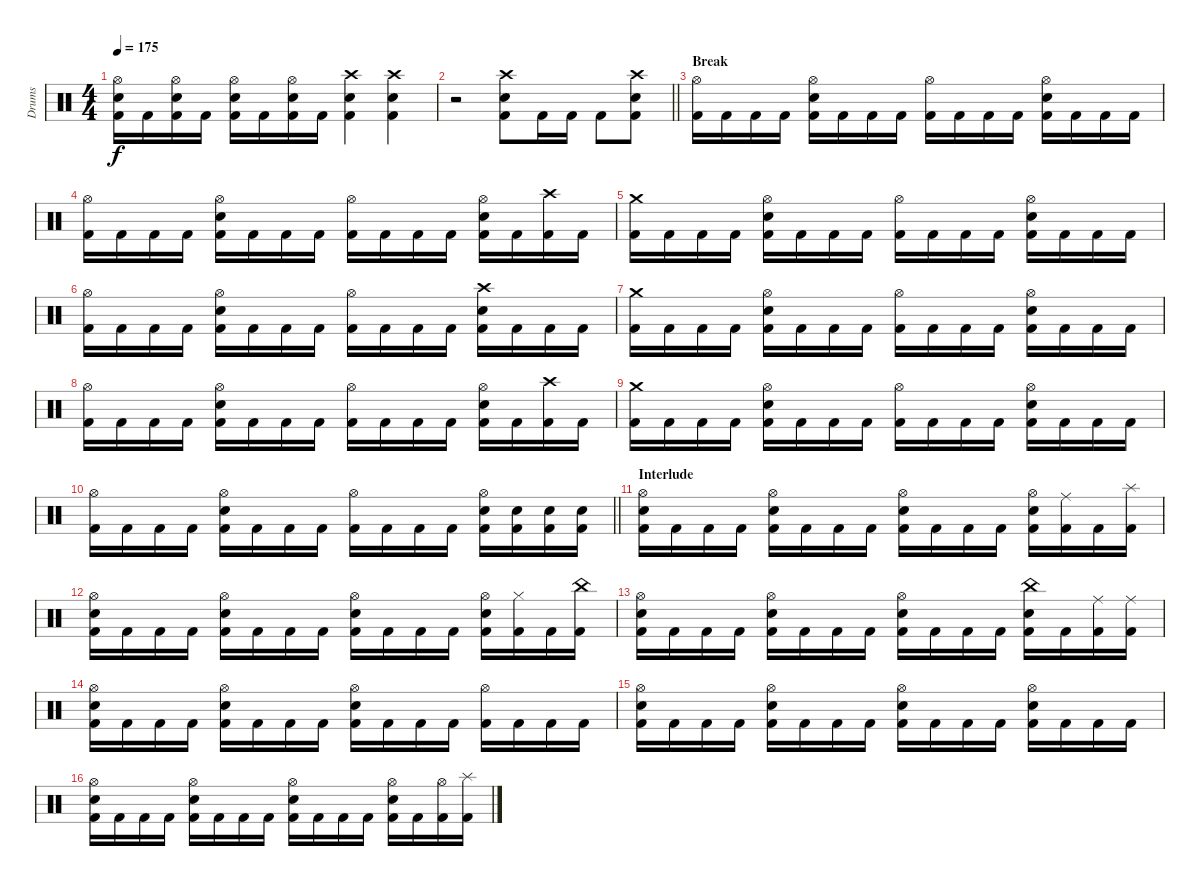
\track ("Drums" "Drums") {instrument percussion}
\staff {score}
\articulation defaults
\ts (4 4)
\tempo 175
\clef neutral
\ks c
("Hi-Hat (open)" "Snare (hit) 2" "Kick (hit) 2").16{dy f} "Kick (hit) 2".16 ("Hi-Hat (open)" "Snare (hit) 2" "Kick (hit) 2").16 "Kick (hit) 2".16 ("Hi-Hat (open)" "Snare (hit) 2" "Kick (hit) 2").16 "Kick (hit) 2".16 ("Hi-Hat (open)" "Snare (hit) 2" "Kick (hit) 2").16 "Kick (hit) 2".16 ("Crash high (hit)" "Snare (hit) 2" "Kick (hit) 2").4 ("Crash high (hit)" "Snare (hit) 2" "Kick (hit) 2").4 |
\barLineRight lightlight
r.2 ("Crash high (hit)" "Snare (hit) 2" "Kick (hit) 2").8 "Kick (hit) 2".16 "Kick (hit) 2".16 "Kick (hit) 2".8 ("Crash high (hit)" "Snare (hit) 2" "Kick (hit) 2").8 |
\section ("" "Break")
("Hi-Hat (open)" "Kick (hit) 2").16 "Kick (hit) 2".16 "Kick (hit) 2".16 "Kick (hit) 2".16 ("Hi-Hat (open)" "Snare (hit) 2" "Kick (hit) 2").16 "Kick (hit) 2".16 "Kick (hit) 2".16 "Kick (hit) 2".16 ("Hi-Hat (open)" "Kick (hit) 2").16 "Kick (hit) 2".16 "Kick (hit) 2".16 "Kick (hit) 2".16 ("Hi-Hat (open)" "Snare (hit) 2" "Kick (hit) 2").16 "Kick (hit) 2".16 "Kick (hit) 2".16 "Kick (hit) 2".16 |
("Hi-Hat (open)" "Kick (hit) 2").16 "Kick (hit) 2".16 "Kick (hit) 2".16 "Kick (hit) 2".16 ("Hi-Hat (open)" "Snare (hit) 2" "Kick (hit) 2").16 "Kick (hit) 2".16 "Kick (hit) 2".16 "Kick (hit) 2".16 ("Hi-Hat (open)" "Kick (hit) 2").16 "Kick (hit) 2".16 "Kick (hit) 2".16 "Kick (hit) 2".16 ("Hi-Hat (open)" "Snare (hit) 2" "Kick (hit) 2").16 "Kick (hit) 2".16 ("Crash high (hit)" "Kick (hit) 2").16 "Kick (hit) 2".16 |
("Crash medium (hit)" "Kick (hit) 2").16 "Kick (hit) 2".16 "Kick (hit) 2".16 "Kick (hit) 2".16 ("Hi-Hat (open)" "Snare (hit) 2" "Kick (hit) 2").16 "Kick (hit) 2".16 "Kick (hit) 2".16 "Kick (hit) 2".16 ("Hi-Hat (open)" "Kick (hit) 2").16 "Kick (hit) 2".16 "Kick (hit) 2".16 "Kick (hit) 2".16 ("Hi-Hat (open)" "Snare (hit) 2" "Kick (hit) 2").16 "Kick (hit) 2".16 "Kick (hit) 2".16 "Kick (hit) 2".16 |
("Hi-Hat (open)" "Kick (hit) 2").16 "Kick (hit) 2".16 "Kick (hit) 2".16 "Kick (hit) 2".16 ("Hi-Hat (open)" "Snare (hit) 2" "Kick (hit) 2").16 "Kick (hit) 2".16 "Kick (hit) 2".16 "Kick (hit) 2".16 ("Hi-Hat (open)" "Kick (hit) 2").16 "Kick (hit) 2".16 "Kick (hit) 2".16 "Kick (hit) 2".16 ("Crash high (hit)" "Snare (hit) 2" "Kick (hit) 2").16 "Kick (hit) 2".16 "Kick (hit) 2".16 "Kick (hit) 2".16 |
("Crash medium (hit)" "Kick (hit) 2").16 "Kick (hit) 2".16 "Kick (hit) 2".16 "Kick (hit) 2".16 ("Hi-Hat (open)" "Snare (hit) 2" "Kick (hit) 2").16 "Kick (hit) 2".16 "Kick (hit) 2".16 "Kick (hit) 2".16 ("Hi-Hat (open)" "Kick (hit) 2").16 "Kick (hit) 2".16 "Kick (hit) 2".16 "Kick (hit) 2".16 ("Hi-Hat (open)" "Snare (hit) 2" "Kick (hit) 2").16 "Kick (hit) 2".16 "Kick (hit) 2".16 "Kick (hit) 2".16 |
("Hi-Hat (open)" "Kick (hit) 2").16 "Kick (hit) 2".16 "Kick (hit) 2".16 "Kick (hit) 2".16 ("Hi-Hat (open)" "Snare (hit) 2" "Kick (hit) 2").16 "Kick (hit) 2".16 "Kick (hit) 2".16 "Kick (hit) 2".16 ("Hi-Hat (open)" "Kick (hit) 2").16 "Kick (hit) 2".16 "Kick (hit) 2".16 "Kick (hit) 2".16 ("Hi-Hat (open)" "Snare (hit) 2" "Kick (hit) 2").16 "Kick (hit) 2".16 ("Crash high (hit)" "Kick (hit) 2").16 "Kick (hit) 2".16 |
("Crash medium (hit)" "Kick (hit) 2").16 "Kick (hit) 2".16 "Kick (hit) 2".16 "Kick (hit) 2".16 ("Hi-Hat (open)" "Snare (hit) 2" "Kick (hit) 2").16 "Kick (hit) 2".16 "Kick (hit) 2".16 "Kick (hit) 2".16 ("Hi-Hat (open)" "Kick (hit) 2").16 "Kick (hit) 2".16 "Kick (hit) 2".16 "Kick (hit) 2".16 ("Hi-Hat (open)" "Snare (hit) 2" "Kick (hit) 2").16 "Kick (hit) 2".16 "Kick (hit) 2".16 "Kick (hit) 2".16 |
\barLineRight lightlight
("Hi-Hat (open)" "Kick (hit) 2").16 "Kick (hit) 2".16 "Kick (hit) 2".16 "Kick (hit) 2".16 ("Hi-Hat (open)" "Snare (hit) 2" "Kick (hit) 2").16 "Kick (hit) 2".16 "Kick (hit) 2".16 "Kick (hit) 2".16 ("Hi-Hat (open)" "Kick (hit) 2").16 "Kick (hit) 2".16 "Kick (hit) 2".16 "Kick (hit) 2".16 ("Hi-Hat (open)" "Snare (hit) 2" "Kick (hit) 2").16 ("Snare (hit) 2" "Kick (hit) 2").16 ("Snare (hit) 2" "Kick (hit) 2").16 ("Snare (hit) 2" "Kick (hit) 2").16 |
\section ("" "Interlude")
("Hi-Hat (open)" "Snare (hit) 2" "Kick (hit) 2").16 "Kick (hit) 2".16 "Kick (hit) 2".16 "Kick (hit) 2".16 ("Hi-Hat (open)" "Snare (hit) 2" "Kick (hit) 2").16 "Kick (hit) 2".16 "Kick (hit) 2".16 "Kick (hit) 2".16 ("Hi-Hat (open)" "Snare (hit) 2" "Kick (hit) 2").16 "Kick (hit) 2".16 "Kick (hit) 2".16 "Kick (hit) 2".16 ("Hi-Hat (open)" "Snare (hit) 2" "Kick (hit) 2").16 ("Ride (middle)" "Kick (hit) 2").16 "Kick (hit) 2".16 ("Splash (hit)" "Kick (hit) 2").16 |
("Hi-Hat (open)" "Snare (hit) 2" "Kick (hit) 2").16 "Kick (hit) 2".16 "Kick (hit) 2".16 "Kick (hit) 2".16 ("Hi-Hat (open)" "Snare (hit) 2" "Kick (hit) 2").16 "Kick (hit) 2".16 "Kick (hit) 2".16 "Kick (hit) 2".16 ("Hi-Hat (open)" "Snare (hit) 2" "Kick (hit) 2").16 "Kick (hit) 2".16 "Kick (hit) 2".16 "Kick (hit) 2".16 ("Hi-Hat (open)" "Snare (hit) 2" "Kick (hit) 2").16 ("Hi-Hat (closed)" "Kick (hit) 2").16 "Kick (hit) 2".16 ("China (hit)" "Kick (hit) 2").16 |
("Hi-Hat (open)" "Snare (hit) 2" "Kick (hit) 2").16 "Kick (hit) 2".16 "Kick (hit) 2".16 "Kick (hit) 2".16 ("Hi-Hat (open)" "Snare (hit) 2" "Kick (hit) 2").16 "Kick (hit) 2".16 "Kick (hit) 2".16 "Kick (hit) 2".16 ("Hi-Hat (open)" "Snare (hit) 2" "Kick (hit) 2").16 "Kick (hit) 2".16 "Kick (hit) 2".16 "Kick (hit) 2".16 ("China (hit)" "Snare (hit) 2" "Kick (hit) 2").16 "Kick (hit) 2".16 ("Ride (middle)" "Kick (hit) 2").16 ("Ride (middle)" "Kick (hit) 2").16 |
("Hi-Hat (open)" "Snare (hit) 2" "Kick (hit) 2").16 "Kick (hit) 2".16 "Kick (hit) 2".16 "Kick (hit) 2".16 ("Hi-Hat (open)" "Snare (hit) 2" "Kick (hit) 2").16 "Kick (hit) 2".16 "Kick (hit) 2".16 "Kick (hit) 2".16 ("Hi-Hat (open)" "Snare (hit) 2" "Kick (hit) 2").16 "Kick (hit) 2".16 "Kick (hit) 2".16 "Kick (hit) 2".16 ("Hi-Hat (open)" "Kick (hit) 2").16 "Kick (hit) 2".16 "Kick (hit) 2".16 "Kick (hit) 2".16 |
("Hi-Hat (open)" "Snare (hit) 2" "Kick (hit) 2").16 "Kick (hit) 2".16 "Kick (hit) 2".16 "Kick (hit) 2".16 ("Hi-Hat (open)" "Snare (hit) 2" "Kick (hit) 2").16 "Kick (hit) 2".16 "Kick (hit) 2".16 "Kick (hit) 2".16 ("Hi-Hat (open)" "Snare (hit) 2" "Kick (hit) 2").16 "Kick (hit) 2".16 "Kick (hit) 2".16 "Kick (hit) 2".16 ("Hi-Hat (open)" "Snare (hit) 2" "Kick (hit) 2").16 "Kick (hit) 2".16 "Kick (hit) 2".16 "Kick (hit) 2".16 |
("Hi-Hat (open)" "Snare (hit) 2" "Kick (hit) 2").16 "Kick (hit) 2".16 "Kick (hit) 2".16 "Kick (hit) 2".16 ("Hi-Hat (open)" "Snare (hit) 2" "Kick (hit) 2").16 "Kick (hit) 2".16 "Kick (hit) 2".16 "Kick (hit) 2".16 ("Hi-Hat (open)" "Snare (hit) 2" "Kick (hit) 2").16 "Kick (hit) 2".16 "Kick (hit) 2".16 "Kick (hit) 2".16 ("Hi-Hat (open)" "Snare (hit) 2" "Kick (hit) 2").16 "Kick (hit) 2".16 ("Hi-Hat (open)" "Kick (hit) 2").16 ("Splash (hit)" "Kick (hit) 2").16
